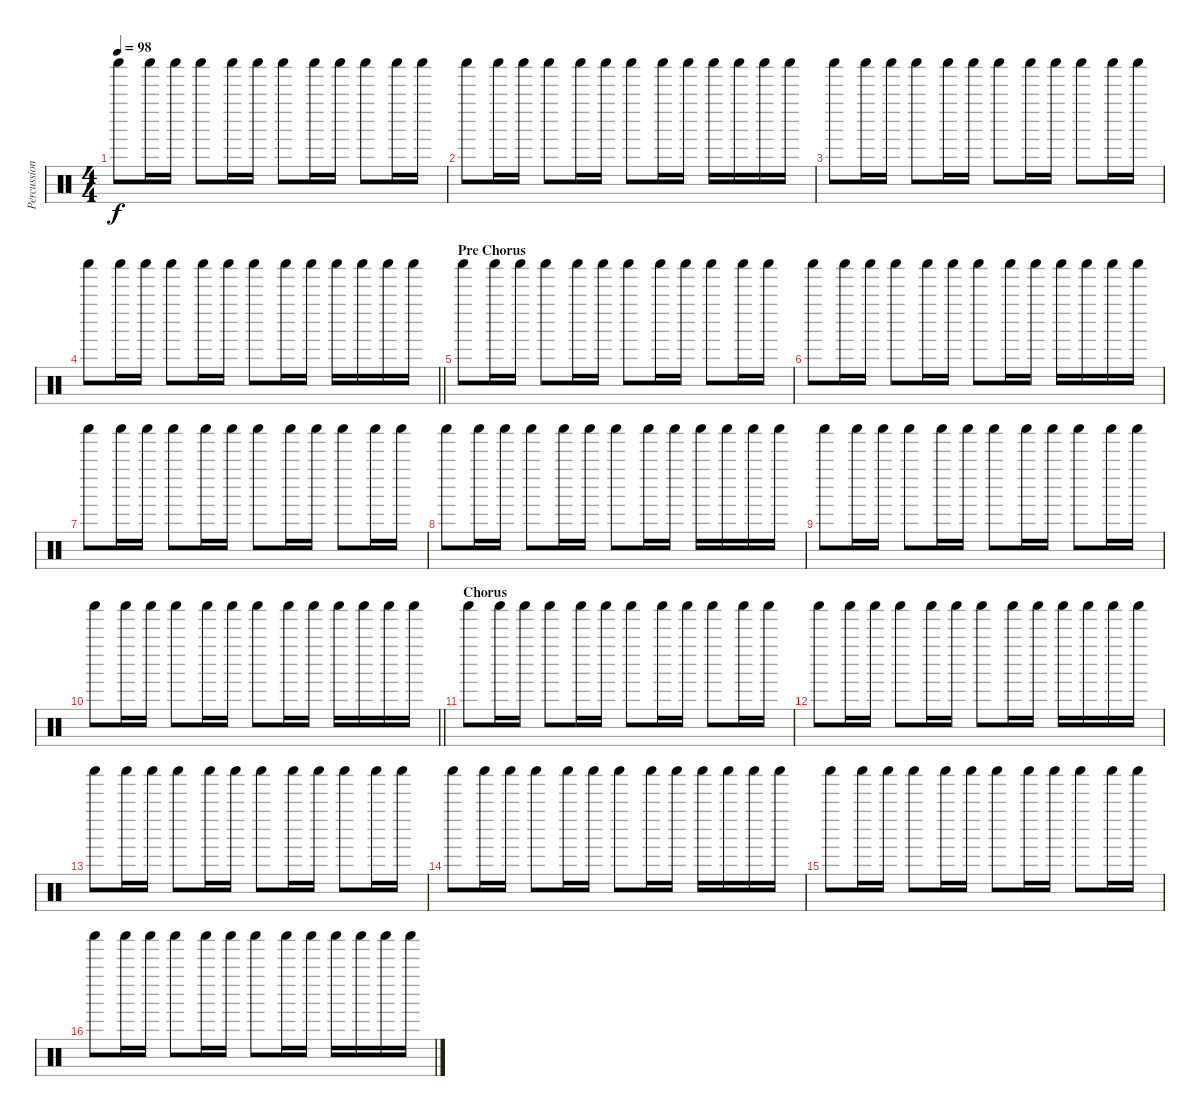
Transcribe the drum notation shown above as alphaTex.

\track ("Percussion" "Percussion") {instrument percussion}
\staff {score}
\articulation defaults
\ts (4 4)
\tempo 98
\clef neutral
\ks c "Shaker (hit)".8{dy f} "Shaker (hit)".16 "Shaker (hit)".16 "Shaker (hit)".8 "Shaker (hit)".16 "Shaker (hit)".16 "Shaker (hit)".8 "Shaker (hit)".16 "Shaker (hit)".16 "Shaker (hit)".8 "Shaker (hit)".16 "Shaker (hit)".16
|
"Shaker (hit)".8 "Shaker (hit)".16 "Shaker (hit)".16 "Shaker (hit)".8 "Shaker (hit)".16 "Shaker (hit)".16 "Shaker (hit)".8 "Shaker (hit)".16 "Shaker (hit)".16 "Shaker (hit)".16 "Shaker (hit)".16 "Shaker (hit)".16 "Shaker (hit)".16 |
"Shaker (hit)".8 "Shaker (hit)".16 "Shaker (hit)".16 "Shaker (hit)".8 "Shaker (hit)".16 "Shaker (hit)".16 "Shaker (hit)".8 "Shaker (hit)".16 "Shaker (hit)".16 "Shaker (hit)".8 "Shaker (hit)".16 "Shaker (hit)".16 |
\barLineRight lightlight "Shaker (hit)".8 "Shaker (hit)".16 "Shaker (hit)".16 "Shaker (hit)".8 "Shaker (hit)".16 "Shaker (hit)".16 "Shaker (hit)".8 "Shaker (hit)".16 "Shaker (hit)".16 "Shaker (hit)".16 "Shaker (hit)".16 "Shaker (hit)".16 "Shaker (hit)".16
|
\section ("" "Pre Chorus")
"Shaker (hit)".8 "Shaker (hit)".16 "Shaker (hit)".16 "Shaker (hit)".8 "Shaker (hit)".16 "Shaker (hit)".16 "Shaker (hit)".8 "Shaker (hit)".16 "Shaker (hit)".16 "Shaker (hit)".8 "Shaker (hit)".16 "Shaker (hit)".16 |
"Shaker (hit)".8 "Shaker (hit)".16 "Shaker (hit)".16 "Shaker (hit)".8 "Shaker (hit)".16 "Shaker (hit)".16 "Shaker (hit)".8 "Shaker (hit)".16 "Shaker (hit)".16 "Shaker (hit)".16 "Shaker (hit)".16 "Shaker (hit)".16 "Shaker (hit)".16 |
"Shaker (hit)".8 "Shaker (hit)".16 "Shaker (hit)".16 "Shaker (hit)".8 "Shaker (hit)".16 "Shaker (hit)".16 "Shaker (hit)".8 "Shaker (hit)".16 "Shaker (hit)".16 "Shaker (hit)".8 "Shaker (hit)".16 "Shaker (hit)".16 |
"Shaker (hit)".8 "Shaker (hit)".16 "Shaker (hit)".16 "Shaker (hit)".8 "Shaker (hit)".16 "Shaker (hit)".16 "Shaker (hit)".8 "Shaker (hit)".16 "Shaker (hit)".16 "Shaker (hit)".16 "Shaker (hit)".16 "Shaker (hit)".16 "Shaker (hit)".16 |
"Shaker (hit)".8 "Shaker (hit)".16 "Shaker (hit)".16 "Shaker (hit)".8 "Shaker (hit)".16 "Shaker (hit)".16 "Shaker (hit)".8 "Shaker (hit)".16 "Shaker (hit)".16 "Shaker (hit)".8 "Shaker (hit)".16 "Shaker (hit)".16 |
\barLineRight lightlight "Shaker (hit)".8 "Shaker (hit)".16 "Shaker (hit)".16 "Shaker (hit)".8 "Shaker (hit)".16 "Shaker (hit)".16 "Shaker (hit)".8 "Shaker (hit)".16 "Shaker (hit)".16 "Shaker (hit)".16 "Shaker (hit)".16 "Shaker (hit)".16 "Shaker (hit)".16
|
\section ("" "Chorus")
"Shaker (hit)".8 "Shaker (hit)".16 "Shaker (hit)".16 "Shaker (hit)".8 "Shaker (hit)".16 "Shaker (hit)".16 "Shaker (hit)".8 "Shaker (hit)".16 "Shaker (hit)".16 "Shaker (hit)".8 "Shaker (hit)".16 "Shaker (hit)".16 |
"Shaker (hit)".8 "Shaker (hit)".16 "Shaker (hit)".16 "Shaker (hit)".8 "Shaker (hit)".16 "Shaker (hit)".16 "Shaker (hit)".8 "Shaker (hit)".16 "Shaker (hit)".16 "Shaker (hit)".16 "Shaker (hit)".16 "Shaker (hit)".16 "Shaker (hit)".16 |
"Shaker (hit)".8 "Shaker (hit)".16 "Shaker (hit)".16 "Shaker (hit)".8 "Shaker (hit)".16 "Shaker (hit)".16 "Shaker (hit)".8 "Shaker (hit)".16 "Shaker (hit)".16 "Shaker (hit)".8 "Shaker (hit)".16 "Shaker (hit)".16 |
"Shaker (hit)".8 "Shaker (hit)".16 "Shaker (hit)".16 "Shaker (hit)".8 "Shaker (hit)".16 "Shaker (hit)".16 "Shaker (hit)".8 "Shaker (hit)".16 "Shaker (hit)".16 "Shaker (hit)".16 "Shaker (hit)".16 "Shaker (hit)".16 "Shaker (hit)".16 |
"Shaker (hit)".8 "Shaker (hit)".16 "Shaker (hit)".16 "Shaker (hit)".8 "Shaker (hit)".16 "Shaker (hit)".16 "Shaker (hit)".8 "Shaker (hit)".16 "Shaker (hit)".16 "Shaker (hit)".8 "Shaker (hit)".16 "Shaker (hit)".16 |
"Shaker (hit)".8 "Shaker (hit)".16 "Shaker (hit)".16 "Shaker (hit)".8 "Shaker (hit)".16 "Shaker (hit)".16 "Shaker (hit)".8 "Shaker (hit)".16 "Shaker (hit)".16 "Shaker (hit)".16 "Shaker (hit)".16 "Shaker (hit)".16 "Shaker (hit)".16
